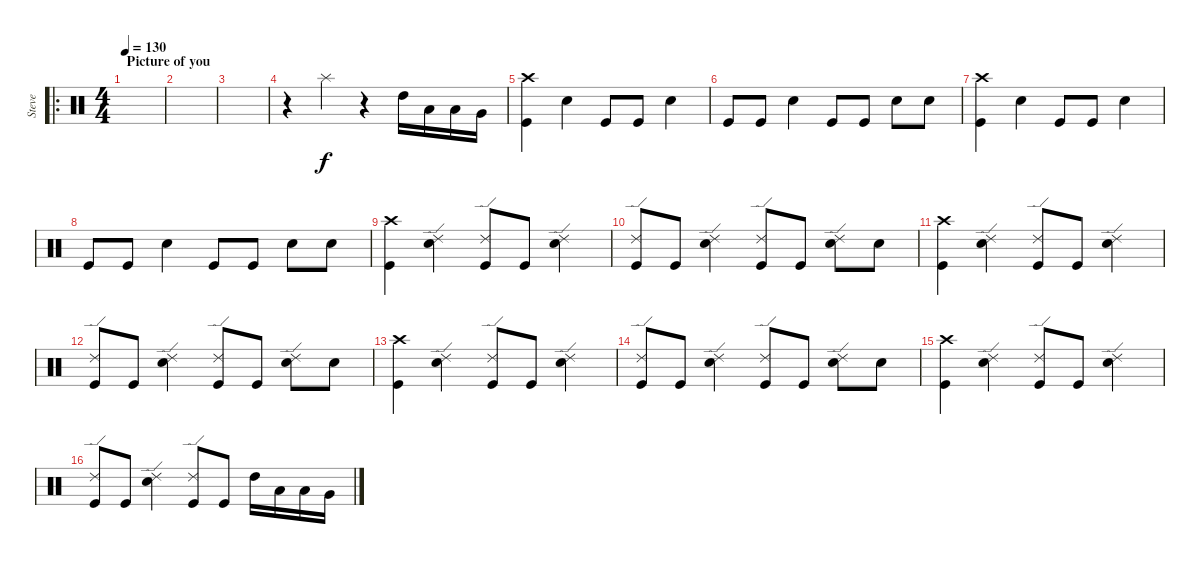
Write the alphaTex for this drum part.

\track ("Steve" "Steve") {instrument percussion}
\staff {score}
\articulation defaults
\ro
\ts (4 4)
\section ("" "Picture of you")
\tempo 130
\clef neutral
\ks c
|
|
|
r.4 "Splash (hit)".4 r.4 "High Tom (hit)".16 "Low Tom (hit)".16 "Low Tom (hit)".16 "Very Low Tom (hit)".16 |
("Crash high (hit)" "Kick (hit)").4 "Snare (hit) 2".4 "Kick (hit)".8 "Kick (hit)".8 "Snare (hit) 2".4 |
"Kick (hit)".8 "Kick (hit)".8 "Snare (hit) 2".4 "Kick (hit)".8 "Kick (hit)".8 "Snare (hit) 2".8 "Snare (hit) 2".8 |
("Crash high (hit)" "Kick (hit)").4 "Snare (hit) 2".4 "Kick (hit)".8 "Kick (hit)".8 "Snare (hit) 2".4 |
"Kick (hit)".8 "Kick (hit)".8 "Snare (hit) 2".4 "Kick (hit)".8 "Kick (hit)".8 "Snare (hit) 2".8 "Snare (hit) 2".8 |
("Crash high (hit)" "Kick (hit)").4 ("Ride (edge) 2" "Snare (hit) 2").4 ("Ride (edge) 2" "Kick (hit)").8 "Kick (hit)".8 ("Ride (edge) 2" "Snare (hit) 2").4 |
("Ride (edge) 2" "Kick (hit)").8 "Kick (hit)".8 ("Ride (edge) 2" "Snare (hit) 2").4 ("Ride (edge) 2" "Kick (hit)").8 "Kick (hit)".8 ("Ride (edge) 2" "Snare (hit) 2").8 "Snare (hit) 2".8 |
("Crash high (hit)" "Kick (hit)").4 ("Ride (edge) 2" "Snare (hit) 2").4 ("Ride (edge) 2" "Kick (hit)").8 "Kick (hit)".8 ("Ride (edge) 2" "Snare (hit) 2").4 |
("Ride (edge) 2" "Kick (hit)").8 "Kick (hit)".8 ("Ride (edge) 2" "Snare (hit) 2").4 ("Ride (edge) 2" "Kick (hit)").8 "Kick (hit)".8 ("Ride (edge) 2" "Snare (hit) 2").8 "Snare (hit) 2".8 |
("Crash high (hit)" "Kick (hit)").4 ("Ride (edge) 2" "Snare (hit) 2").4 ("Ride (edge) 2" "Kick (hit)").8 "Kick (hit)".8 ("Ride (edge) 2" "Snare (hit) 2").4 |
("Ride (edge) 2" "Kick (hit)").8 "Kick (hit)".8 ("Ride (edge) 2" "Snare (hit) 2").4 ("Ride (edge) 2" "Kick (hit)").8 "Kick (hit)".8 ("Ride (edge) 2" "Snare (hit) 2").8 "Snare (hit) 2".8 |
("Crash high (hit)" "Kick (hit)").4 ("Ride (edge) 2" "Snare (hit) 2").4 ("Ride (edge) 2" "Kick (hit)").8 "Kick (hit)".8 ("Ride (edge) 2" "Snare (hit) 2").4 |
("Ride (edge) 2" "Kick (hit)").8 "Kick (hit)".8 ("Ride (edge) 2" "Snare (hit) 2").4 ("Ride (edge) 2" "Kick (hit)").8 "Kick (hit)".8 "High Tom (hit)".16 "Low Tom (hit)".16 "Low Tom (hit)".16 "Very Low Tom (hit)".16
